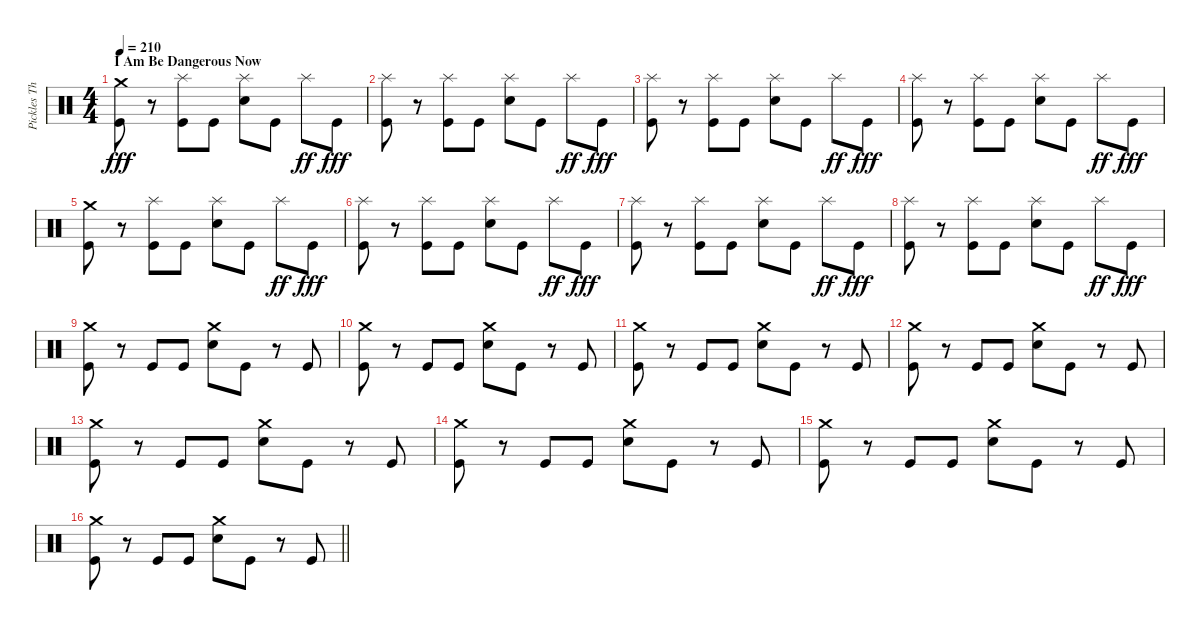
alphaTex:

\track ("Pickles The Drummer (Drums)" "Pickles Th") {instrument percussion}
\staff {score}
\articulation defaults
\ts (4 4)
\section ("" "I Am Be Dangerous Now")
\tempo 210
\clef neutral
\ks c
("Crash medium (hit)" "Kick (hit)").8{dy fff} r.8 ("Splash (hit)" "Kick (hit)").8 "Kick (hit)".8 ("Splash (hit)" "Snare (hit) 2").8 "Kick (hit)".8 "Splash (hit)".8{dy ff} "Kick (hit)".8{dy fff} |
("Splash (hit)" "Kick (hit)").8 r.8 ("Splash (hit)" "Kick (hit)").8 "Kick (hit)".8 ("Splash (hit)" "Snare (hit) 2").8 "Kick (hit)".8 "Splash (hit)".8{dy ff} "Kick (hit)".8{dy fff} |
("Splash (hit)" "Kick (hit)").8 r.8 ("Splash (hit)" "Kick (hit)").8 "Kick (hit)".8 ("Splash (hit)" "Snare (hit) 2").8 "Kick (hit)".8 "Splash (hit)".8{dy ff} "Kick (hit)".8{dy fff} |
("Splash (hit)" "Kick (hit)").8 r.8 ("Splash (hit)" "Kick (hit)").8 "Kick (hit)".8 ("Splash (hit)" "Snare (hit) 2").8 "Kick (hit)".8 "Splash (hit)".8{dy ff} "Kick (hit)".8{dy fff} |
("Crash medium (hit)" "Kick (hit)").8 r.8 ("Splash (hit)" "Kick (hit)").8 "Kick (hit)".8 ("Splash (hit)" "Snare (hit) 2").8 "Kick (hit)".8 "Splash (hit)".8{dy ff} "Kick (hit)".8{dy fff} |
("Splash (hit)" "Kick (hit)").8 r.8 ("Splash (hit)" "Kick (hit)").8 "Kick (hit)".8 ("Splash (hit)" "Snare (hit) 2").8 "Kick (hit)".8 "Splash (hit)".8{dy ff} "Kick (hit)".8{dy fff} |
("Splash (hit)" "Kick (hit)").8 r.8 ("Splash (hit)" "Kick (hit)").8 "Kick (hit)".8 ("Splash (hit)" "Snare (hit) 2").8 "Kick (hit)".8 "Splash (hit)".8{dy ff} "Kick (hit)".8{dy fff} |
("Splash (hit)" "Kick (hit)").8 r.8 ("Splash (hit)" "Kick (hit)").8 "Kick (hit)".8 ("Splash (hit)" "Snare (hit) 2").8 "Kick (hit)".8 "Splash (hit)".8{dy ff} "Kick (hit)".8{dy fff} |
("Crash medium (hit)" "Kick (hit)").8 r.8 "Kick (hit)".8 "Kick (hit)".8 ("Crash medium (hit)" "Snare (hit) 2").8 "Kick (hit)".8 r.8 "Kick (hit)".8 |
("Crash medium (hit)" "Kick (hit)").8 r.8 "Kick (hit)".8 "Kick (hit)".8 ("Crash medium (hit)" "Snare (hit) 2").8 "Kick (hit)".8 r.8 "Kick (hit)".8 |
("Crash medium (hit)" "Kick (hit)").8 r.8 "Kick (hit)".8 "Kick (hit)".8 ("Crash medium (hit)" "Snare (hit) 2").8 "Kick (hit)".8 r.8 "Kick (hit)".8 |
("Crash medium (hit)" "Kick (hit)").8 r.8 "Kick (hit)".8 "Kick (hit)".8 ("Crash medium (hit)" "Snare (hit) 2").8 "Kick (hit)".8 r.8 "Kick (hit)".8 |
("Crash medium (hit)" "Kick (hit)").8 r.8 "Kick (hit)".8 "Kick (hit)".8 ("Crash medium (hit)" "Snare (hit) 2").8 "Kick (hit)".8 r.8 "Kick (hit)".8 |
("Crash medium (hit)" "Kick (hit)").8 r.8 "Kick (hit)".8 "Kick (hit)".8 ("Crash medium (hit)" "Snare (hit) 2").8 "Kick (hit)".8 r.8 "Kick (hit)".8 |
("Crash medium (hit)" "Kick (hit)").8 r.8 "Kick (hit)".8 "Kick (hit)".8 ("Crash medium (hit)" "Snare (hit) 2").8 "Kick (hit)".8 r.8 "Kick (hit)".8 |
\barLineRight lightlight
("Crash medium (hit)" "Kick (hit)").8 r.8 "Kick (hit)".8 "Kick (hit)".8 ("Crash medium (hit)" "Snare (hit) 2").8 "Kick (hit)".8 r.8 "Kick (hit)".8
